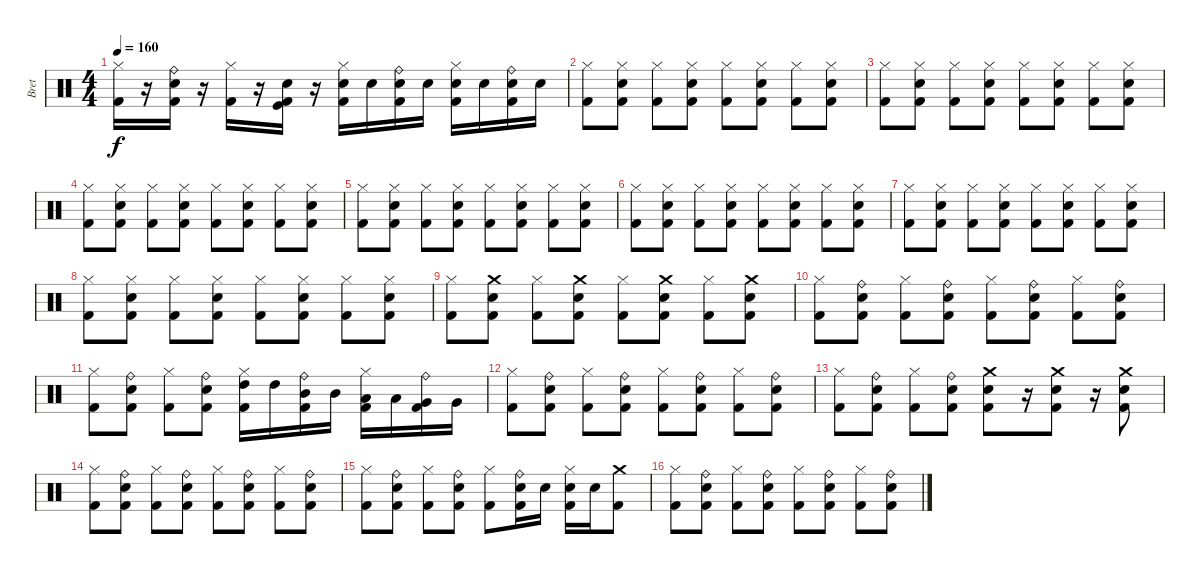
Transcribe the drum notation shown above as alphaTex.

\track ("Bret" "Bret") {instrument percussion}
\staff {score}
\articulation defaults
\ts (4 4)
\tempo 160
\clef neutral
\ks c
("Hi-Hat (closed)" "Kick (hit) 2").16{dy f} r.16 ("Ride (bell)" "Electric Snare (hit)" "Kick (hit) 2").16 r.16 ("Hi-Hat (closed)" "Kick (hit) 2").16 r.16 ("Kick (hit)" "Electric Snare (hit)" "Kick (hit) 2").16 r.16 ("Hi-Hat (closed)" "Electric Snare (hit)" "Kick (hit) 2").16 "Electric Snare (hit)".16 ("Ride (bell)" "Electric Snare (hit)" "Kick (hit) 2").16 "Electric Snare (hit)".16 ("Hi-Hat (closed)" "Electric Snare (hit)" "Kick (hit) 2").16 "Electric Snare (hit)".16 ("Ride (bell)" "Electric Snare (hit)" "Kick (hit) 2").16 "Electric Snare (hit)".16 |
("Hi-Hat (closed)" "Kick (hit) 2").8 ("Hi-Hat (closed)" "Electric Snare (hit)" "Kick (hit) 2").8 ("Hi-Hat (closed)" "Kick (hit) 2").8 ("Hi-Hat (closed)" "Electric Snare (hit)" "Kick (hit) 2").8 ("Hi-Hat (closed)" "Kick (hit) 2").8 ("Hi-Hat (closed)" "Electric Snare (hit)" "Kick (hit) 2").8 ("Hi-Hat (closed)" "Kick (hit) 2").8 ("Hi-Hat (closed)" "Electric Snare (hit)" "Kick (hit) 2").8 |
("Hi-Hat (closed)" "Kick (hit) 2").8 ("Hi-Hat (closed)" "Electric Snare (hit)" "Kick (hit) 2").8 ("Hi-Hat (closed)" "Kick (hit) 2").8 ("Hi-Hat (closed)" "Electric Snare (hit)" "Kick (hit) 2").8 ("Hi-Hat (closed)" "Kick (hit) 2").8 ("Hi-Hat (closed)" "Electric Snare (hit)" "Kick (hit) 2").8 ("Hi-Hat (closed)" "Kick (hit) 2").8 ("Hi-Hat (closed)" "Electric Snare (hit)" "Kick (hit) 2").8 |
("Hi-Hat (closed)" "Kick (hit) 2").8 ("Hi-Hat (closed)" "Electric Snare (hit)" "Kick (hit) 2").8 ("Hi-Hat (closed)" "Kick (hit) 2").8 ("Hi-Hat (closed)" "Electric Snare (hit)" "Kick (hit) 2").8 ("Hi-Hat (closed)" "Kick (hit) 2").8 ("Hi-Hat (closed)" "Electric Snare (hit)" "Kick (hit) 2").8 ("Hi-Hat (closed)" "Kick (hit) 2").8 ("Hi-Hat (closed)" "Electric Snare (hit)" "Kick (hit) 2").8 |
("Hi-Hat (closed)" "Kick (hit) 2").8 ("Hi-Hat (closed)" "Electric Snare (hit)" "Kick (hit) 2").8 ("Hi-Hat (closed)" "Kick (hit) 2").8 ("Hi-Hat (closed)" "Electric Snare (hit)" "Kick (hit) 2").8 ("Hi-Hat (closed)" "Kick (hit) 2").8 ("Hi-Hat (closed)" "Electric Snare (hit)" "Kick (hit) 2").8 ("Hi-Hat (closed)" "Kick (hit) 2").8 ("Hi-Hat (closed)" "Electric Snare (hit)" "Kick (hit) 2").8 |
("Hi-Hat (closed)" "Kick (hit) 2").8 ("Hi-Hat (closed)" "Electric Snare (hit)" "Kick (hit) 2").8 ("Hi-Hat (closed)" "Kick (hit) 2").8 ("Hi-Hat (closed)" "Electric Snare (hit)" "Kick (hit) 2").8 ("Hi-Hat (closed)" "Kick (hit) 2").8 ("Hi-Hat (closed)" "Electric Snare (hit)" "Kick (hit) 2").8 ("Hi-Hat (closed)" "Kick (hit) 2").8 ("Hi-Hat (closed)" "Electric Snare (hit)" "Kick (hit) 2").8 |
("Hi-Hat (closed)" "Kick (hit) 2").8 ("Hi-Hat (closed)" "Electric Snare (hit)" "Kick (hit) 2").8 ("Hi-Hat (closed)" "Kick (hit) 2").8 ("Hi-Hat (closed)" "Electric Snare (hit)" "Kick (hit) 2").8 ("Hi-Hat (closed)" "Kick (hit) 2").8 ("Hi-Hat (closed)" "Electric Snare (hit)" "Kick (hit) 2").8 ("Hi-Hat (closed)" "Kick (hit) 2").8 ("Hi-Hat (closed)" "Electric Snare (hit)" "Kick (hit) 2").8 |
("Hi-Hat (closed)" "Kick (hit) 2").8 ("Hi-Hat (closed)" "Electric Snare (hit)" "Kick (hit) 2").8 ("Hi-Hat (closed)" "Kick (hit) 2").8 ("Hi-Hat (closed)" "Electric Snare (hit)" "Kick (hit) 2").8 ("Hi-Hat (closed)" "Kick (hit) 2").8 ("Hi-Hat (closed)" "Electric Snare (hit)" "Kick (hit) 2").8 ("Hi-Hat (closed)" "Kick (hit) 2").8 ("Hi-Hat (closed)" "Electric Snare (hit)" "Kick (hit) 2").8 |
("Hi-Hat (closed)" "Kick (hit) 2").8 ("Crash medium (hit)" "Electric Snare (hit)" "Kick (hit) 2").8 ("Hi-Hat (closed)" "Kick (hit) 2").8 ("Crash medium (hit)" "Electric Snare (hit)" "Kick (hit) 2").8 ("Hi-Hat (closed)" "Kick (hit) 2").8 ("Crash medium (hit)" "Electric Snare (hit)" "Kick (hit) 2").8 ("Hi-Hat (closed)" "Kick (hit) 2").8 ("Crash medium (hit)" "Electric Snare (hit)" "Kick (hit) 2").8 |
("Hi-Hat (closed)" "Kick (hit) 2").8 ("Ride (bell)" "Electric Snare (hit)" "Kick (hit) 2").8 ("Hi-Hat (closed)" "Kick (hit) 2").8 ("Ride (bell)" "Electric Snare (hit)" "Kick (hit) 2").8 ("Hi-Hat (closed)" "Kick (hit) 2").8 ("Ride (bell)" "Electric Snare (hit)" "Kick (hit) 2").8 ("Hi-Hat (closed)" "Kick (hit) 2").8 ("Ride (bell)" "Electric Snare (hit)" "Kick (hit) 2").8 |
("Hi-Hat (closed)" "Kick (hit) 2").8 ("Ride (bell)" "Electric Snare (hit)" "Kick (hit) 2").8 ("Hi-Hat (closed)" "Kick (hit) 2").8 ("Ride (bell)" "Electric Snare (hit)" "Kick (hit) 2").8 ("Hi-Hat (closed)" "High Tom (hit)" "Kick (hit) 2").16 "High Tom (hit)".16 ("Ride (bell)" "Mid Tom (hit)" "Kick (hit) 2").16 "Mid Tom (hit)".16 ("Hi-Hat (closed)" "Low Tom (hit)" "Kick (hit) 2").16 "Low Tom (hit)".16 ("Ride (bell)" "Very Low Tom (hit)" "Kick (hit) 2").16 "Very Low Tom (hit)".16 |
("Hi-Hat (closed)" "Kick (hit) 2").8 ("Ride (bell)" "Electric Snare (hit)" "Kick (hit) 2").8 ("Hi-Hat (closed)" "Kick (hit) 2").8 ("Ride (bell)" "Electric Snare (hit)" "Kick (hit) 2").8 ("Hi-Hat (closed)" "Kick (hit) 2").8 ("Ride (bell)" "Electric Snare (hit)" "Kick (hit) 2").8 ("Hi-Hat (closed)" "Kick (hit) 2").8 ("Ride (bell)" "Electric Snare (hit)" "Kick (hit) 2").8 |
("Hi-Hat (closed)" "Kick (hit) 2").8 ("Ride (bell)" "Electric Snare (hit)" "Kick (hit) 2").8 ("Hi-Hat (closed)" "Kick (hit) 2").8 ("Ride (bell)" "Electric Snare (hit)" "Kick (hit) 2").8 ("Crash medium (hit)" "Electric Snare (hit)" "Kick (hit) 2").8 r.16 ("Crash medium (hit)" "Electric Snare (hit)" "Kick (hit) 2").8 r.16 ("Crash medium (hit)" "Electric Snare (hit)" "Kick (hit) 2").8 |
("Hi-Hat (closed)" "Kick (hit) 2").8 ("Ride (bell)" "Electric Snare (hit)" "Kick (hit) 2").8 ("Hi-Hat (closed)" "Kick (hit) 2").8 ("Ride (bell)" "Electric Snare (hit)" "Kick (hit) 2").8 ("Hi-Hat (closed)" "Kick (hit) 2").8 ("Ride (bell)" "Electric Snare (hit)" "Kick (hit) 2").8 ("Hi-Hat (closed)" "Kick (hit) 2").8 ("Ride (bell)" "Electric Snare (hit)" "Kick (hit) 2").8 |
("Hi-Hat (closed)" "Kick (hit) 2").8 ("Ride (bell)" "Electric Snare (hit)" "Kick (hit) 2").8 ("Hi-Hat (closed)" "Kick (hit) 2").8 ("Ride (bell)" "Electric Snare (hit)" "Kick (hit) 2").8 ("Hi-Hat (closed)" "Kick (hit) 2").8 ("Ride (bell)" "Electric Snare (hit)" "Kick (hit) 2").16 "Electric Snare (hit)".16 ("Hi-Hat (closed)" "Electric Snare (hit)" "Kick (hit) 2").16 "Electric Snare (hit)".16 ("Crash medium (hit)" "Kick (hit) 2").8 |
("Hi-Hat (closed)" "Kick (hit) 2").8 ("Ride (bell)" "Electric Snare (hit)" "Kick (hit) 2").8 ("Hi-Hat (closed)" "Kick (hit) 2").8 ("Ride (bell)" "Electric Snare (hit)" "Kick (hit) 2").8 ("Hi-Hat (closed)" "Kick (hit) 2").8 ("Ride (bell)" "Electric Snare (hit)" "Kick (hit) 2").8 ("Hi-Hat (closed)" "Kick (hit) 2").8 ("Ride (bell)" "Electric Snare (hit)" "Kick (hit) 2").8
